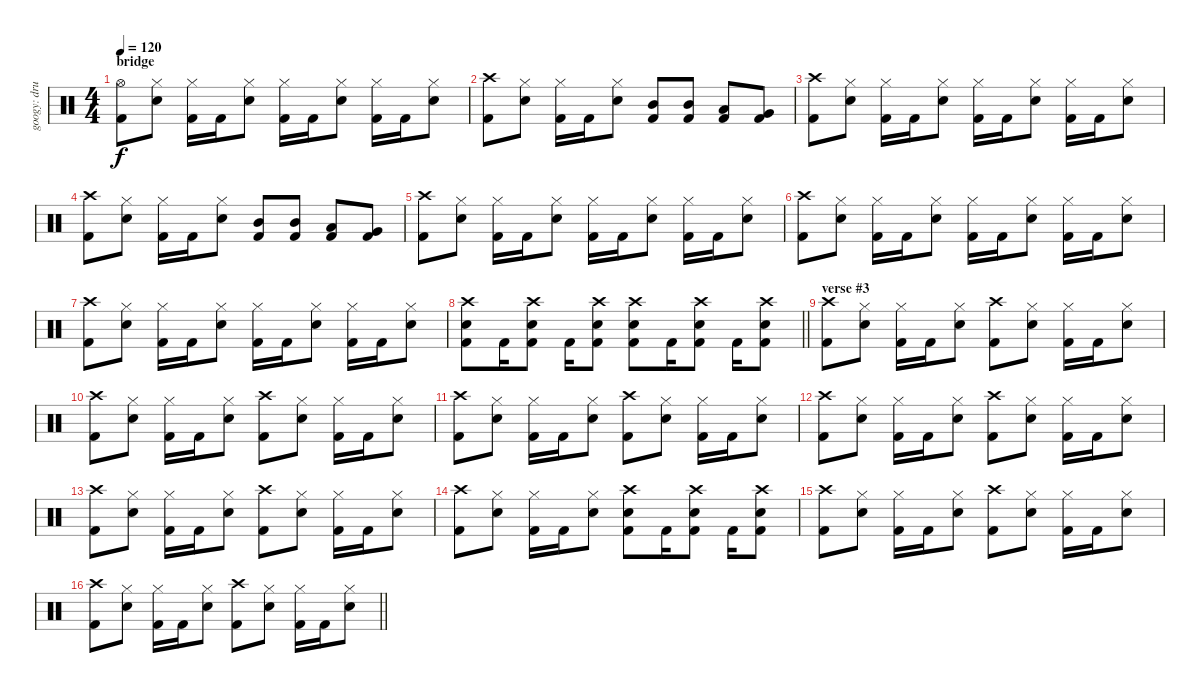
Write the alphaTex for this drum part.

\track ("googy: drums" "googy: dru") {instrument percussion}
\staff {score}
\articulation defaults
\ts (4 4)
\section ("" "bridge")
\tempo 120
\clef neutral
\ks c
("Kick (hit) 2" "Hi-Hat (open)").8{dy f} ("Hi-Hat (closed)" "Electric Snare (hit)").8 ("Hi-Hat (closed)" "Kick (hit) 2").16 "Kick (hit) 2".16 ("Hi-Hat (closed)" "Electric Snare (hit)").8 ("Hi-Hat (closed)" "Kick (hit) 2").16 "Kick (hit) 2".16 ("Hi-Hat (closed)" "Electric Snare (hit)").8 ("Hi-Hat (closed)" "Kick (hit) 2").16 "Kick (hit) 2".16 ("Hi-Hat (closed)" "Electric Snare (hit)").8 |
("Kick (hit) 2" "Crash high (hit)").8 ("Hi-Hat (closed)" "Electric Snare (hit)").8 ("Hi-Hat (closed)" "Kick (hit) 2").16 "Kick (hit) 2".16 ("Hi-Hat (closed)" "Electric Snare (hit)").8 ("Mid Tom (hit)" "Kick (hit) 2").8 ("Mid Tom (hit)" "Kick (hit) 2").8 ("Low Tom (hit)" "Kick (hit) 2").8 ("Very Low Tom (hit)" "Kick (hit) 2").8 |
("Kick (hit) 2" "Crash high (hit)").8 ("Hi-Hat (closed)" "Electric Snare (hit)").8 ("Hi-Hat (closed)" "Kick (hit) 2").16 "Kick (hit) 2".16 ("Hi-Hat (closed)" "Electric Snare (hit)").8 ("Hi-Hat (closed)" "Kick (hit) 2").16 "Kick (hit) 2".16 ("Hi-Hat (closed)" "Electric Snare (hit)").8 ("Hi-Hat (closed)" "Kick (hit) 2").16 "Kick (hit) 2".16 ("Hi-Hat (closed)" "Electric Snare (hit)").8 |
("Kick (hit) 2" "Crash high (hit)").8 ("Hi-Hat (closed)" "Electric Snare (hit)").8 ("Hi-Hat (closed)" "Kick (hit) 2").16 "Kick (hit) 2".16 ("Hi-Hat (closed)" "Electric Snare (hit)").8 ("Mid Tom (hit)" "Kick (hit) 2").8 ("Mid Tom (hit)" "Kick (hit) 2").8 ("Low Tom (hit)" "Kick (hit) 2").8 ("Very Low Tom (hit)" "Kick (hit) 2").8 |
("Kick (hit) 2" "Crash high (hit)").8 ("Hi-Hat (closed)" "Electric Snare (hit)").8 ("Hi-Hat (closed)" "Kick (hit) 2").16 "Kick (hit) 2".16 ("Hi-Hat (closed)" "Electric Snare (hit)").8 ("Hi-Hat (closed)" "Kick (hit) 2").16 "Kick (hit) 2".16 ("Hi-Hat (closed)" "Electric Snare (hit)").8 ("Hi-Hat (closed)" "Kick (hit) 2").16 "Kick (hit) 2".16 ("Hi-Hat (closed)" "Electric Snare (hit)").8 |
("Kick (hit) 2" "Crash high (hit)").8 ("Hi-Hat (closed)" "Electric Snare (hit)").8 ("Hi-Hat (closed)" "Kick (hit) 2").16 "Kick (hit) 2".16 ("Hi-Hat (closed)" "Electric Snare (hit)").8 ("Hi-Hat (closed)" "Kick (hit) 2").16 "Kick (hit) 2".16 ("Hi-Hat (closed)" "Electric Snare (hit)").8 ("Hi-Hat (closed)" "Kick (hit) 2").16 "Kick (hit) 2".16 ("Hi-Hat (closed)" "Electric Snare (hit)").8 |
("Kick (hit) 2" "Crash high (hit)").8 ("Hi-Hat (closed)" "Electric Snare (hit)").8 ("Hi-Hat (closed)" "Kick (hit) 2").16 "Kick (hit) 2".16 ("Hi-Hat (closed)" "Electric Snare (hit)").8 ("Hi-Hat (closed)" "Kick (hit) 2").16 "Kick (hit) 2".16 ("Hi-Hat (closed)" "Electric Snare (hit)").8 ("Hi-Hat (closed)" "Kick (hit) 2").16 "Kick (hit) 2".16 ("Hi-Hat (closed)" "Electric Snare (hit)").8 |
\barLineRight lightlight
("Electric Snare (hit)" "Kick (hit) 2" "Crash high (hit)").8 "Kick (hit) 2".16 ("Crash high (hit)" "Kick (hit) 2" "Electric Snare (hit)").8 "Kick (hit) 2".16 ("Crash high (hit)" "Kick (hit) 2" "Electric Snare (hit)").8 ("Electric Snare (hit)" "Kick (hit) 2" "Crash high (hit)").8 "Kick (hit) 2".16 ("Crash high (hit)" "Kick (hit) 2" "Electric Snare (hit)").8 "Kick (hit) 2".16 ("Crash high (hit)" "Kick (hit) 2" "Electric Snare (hit)").8 |
\section ("" "verse #3")
("Kick (hit) 2" "Crash high (hit)").8 ("Hi-Hat (closed)" "Electric Snare (hit)").8 ("Hi-Hat (closed)" "Kick (hit) 2").16 "Kick (hit) 2".16 ("Hi-Hat (closed)" "Electric Snare (hit)").8 ("Kick (hit) 2" "Crash high (hit)").8 ("Hi-Hat (closed)" "Electric Snare (hit)").8 ("Hi-Hat (closed)" "Kick (hit) 2").16 "Kick (hit) 2".16 ("Hi-Hat (closed)" "Electric Snare (hit)").8 |
("Kick (hit) 2" "Crash high (hit)").8 ("Hi-Hat (closed)" "Electric Snare (hit)").8 ("Hi-Hat (closed)" "Kick (hit) 2").16 "Kick (hit) 2".16 ("Hi-Hat (closed)" "Electric Snare (hit)").8 ("Kick (hit) 2" "Crash high (hit)").8 ("Hi-Hat (closed)" "Electric Snare (hit)").8 ("Hi-Hat (closed)" "Kick (hit) 2").16 "Kick (hit) 2".16 ("Hi-Hat (closed)" "Electric Snare (hit)").8 |
("Kick (hit) 2" "Crash high (hit)").8 ("Hi-Hat (closed)" "Electric Snare (hit)").8 ("Hi-Hat (closed)" "Kick (hit) 2").16 "Kick (hit) 2".16 ("Hi-Hat (closed)" "Electric Snare (hit)").8 ("Kick (hit) 2" "Crash high (hit)").8 ("Hi-Hat (closed)" "Electric Snare (hit)").8 ("Hi-Hat (closed)" "Kick (hit) 2").16 "Kick (hit) 2".16 ("Hi-Hat (closed)" "Electric Snare (hit)").8 |
("Kick (hit) 2" "Crash high (hit)").8 ("Hi-Hat (closed)" "Electric Snare (hit)").8 ("Hi-Hat (closed)" "Kick (hit) 2").16 "Kick (hit) 2".16 ("Hi-Hat (closed)" "Electric Snare (hit)").8 ("Kick (hit) 2" "Crash high (hit)").8 ("Hi-Hat (closed)" "Electric Snare (hit)").8 ("Hi-Hat (closed)" "Kick (hit) 2").16 "Kick (hit) 2".16 ("Hi-Hat (closed)" "Electric Snare (hit)").8 |
("Kick (hit) 2" "Crash high (hit)").8 ("Hi-Hat (closed)" "Electric Snare (hit)").8 ("Hi-Hat (closed)" "Kick (hit) 2").16 "Kick (hit) 2".16 ("Hi-Hat (closed)" "Electric Snare (hit)").8 ("Kick (hit) 2" "Crash high (hit)").8 ("Hi-Hat (closed)" "Electric Snare (hit)").8 ("Hi-Hat (closed)" "Kick (hit) 2").16 "Kick (hit) 2".16 ("Hi-Hat (closed)" "Electric Snare (hit)").8 |
("Kick (hit) 2" "Crash high (hit)").8 ("Hi-Hat (closed)" "Electric Snare (hit)").8 ("Hi-Hat (closed)" "Kick (hit) 2").16 "Kick (hit) 2".16 ("Hi-Hat (closed)" "Electric Snare (hit)").8 ("Electric Snare (hit)" "Kick (hit) 2" "Crash high (hit)").8 "Kick (hit) 2".16 ("Crash high (hit)" "Kick (hit) 2" "Electric Snare (hit)").8 "Kick (hit) 2".16 ("Crash high (hit)" "Kick (hit) 2" "Electric Snare (hit)").8 |
("Kick (hit) 2" "Crash high (hit)").8 ("Hi-Hat (closed)" "Electric Snare (hit)").8 ("Hi-Hat (closed)" "Kick (hit) 2").16 "Kick (hit) 2".16 ("Hi-Hat (closed)" "Electric Snare (hit)").8 ("Kick (hit) 2" "Crash high (hit)").8 ("Hi-Hat (closed)" "Electric Snare (hit)").8 ("Hi-Hat (closed)" "Kick (hit) 2").16 "Kick (hit) 2".16 ("Hi-Hat (closed)" "Electric Snare (hit)").8 |
\barLineRight lightlight
("Kick (hit) 2" "Crash high (hit)").8 ("Hi-Hat (closed)" "Electric Snare (hit)").8 ("Hi-Hat (closed)" "Kick (hit) 2").16 "Kick (hit) 2".16 ("Hi-Hat (closed)" "Electric Snare (hit)").8 ("Kick (hit) 2" "Crash high (hit)").8 ("Hi-Hat (closed)" "Electric Snare (hit)").8 ("Hi-Hat (closed)" "Kick (hit) 2").16 "Kick (hit) 2".16 ("Hi-Hat (closed)" "Electric Snare (hit)").8
